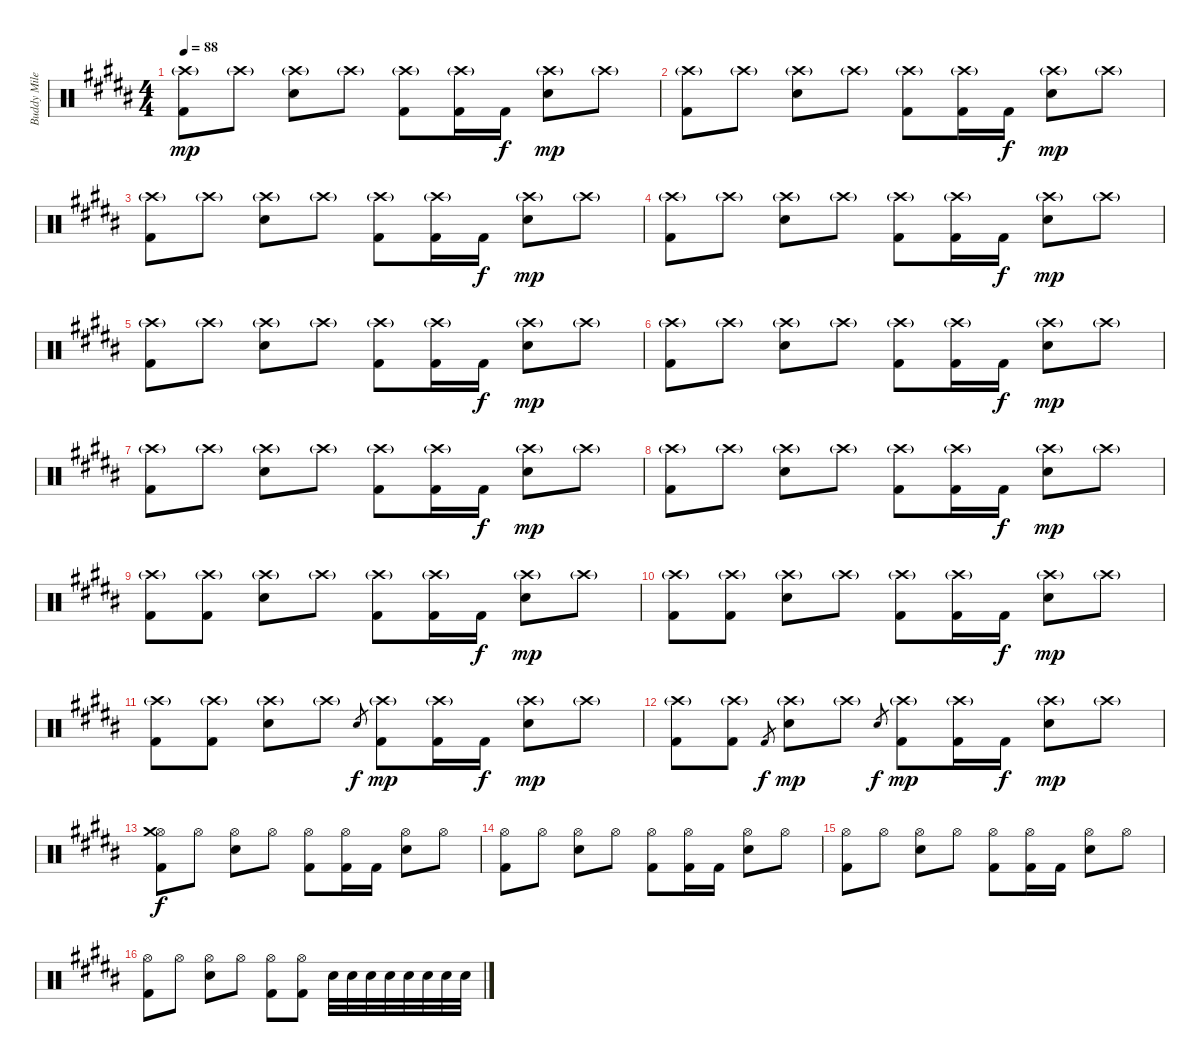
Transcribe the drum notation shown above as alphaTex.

\track ("Buddy Miles" "Buddy Mile") {instrument percussion}
\staff {score}
\articulation defaults
\ts (4 4)
\tempo 88
\clef neutral
\ks b
("Crash high (hit)"{g} "Kick (hit) 2").8{dy mp} "Crash high (hit)"{g}.8 ("Crash high (hit)"{g} "Electric Snare (hit)").8 "Crash high (hit)"{g}.8 ("Crash high (hit)"{g} "Kick (hit) 2").8 ("Crash high (hit)"{g} "Kick (hit) 2").16 "Kick (hit) 2".16{dy f} ("Crash high (hit)"{g} "Electric Snare (hit)").8{dy mp} "Crash high (hit)"{g}.8 |
("Crash high (hit)"{g} "Kick (hit) 2").8 "Crash high (hit)"{g}.8 ("Crash high (hit)"{g} "Electric Snare (hit)").8 "Crash high (hit)"{g}.8 ("Crash high (hit)"{g} "Kick (hit) 2").8 ("Crash high (hit)"{g} "Kick (hit) 2").16 "Kick (hit) 2".16{dy f} ("Crash high (hit)"{g} "Electric Snare (hit)").8{dy mp} "Crash high (hit)"{g}.8 |
("Crash high (hit)"{g} "Kick (hit) 2").8 "Crash high (hit)"{g}.8 ("Crash high (hit)"{g} "Electric Snare (hit)").8 "Crash high (hit)"{g}.8 ("Crash high (hit)"{g} "Kick (hit) 2").8 ("Crash high (hit)"{g} "Kick (hit) 2").16 "Kick (hit) 2".16{dy f} ("Crash high (hit)"{g} "Electric Snare (hit)").8{dy mp} "Crash high (hit)"{g}.8 |
("Crash high (hit)"{g} "Kick (hit) 2").8 "Crash high (hit)"{g}.8 ("Crash high (hit)"{g} "Electric Snare (hit)").8 "Crash high (hit)"{g}.8 ("Crash high (hit)"{g} "Kick (hit) 2").8 ("Crash high (hit)"{g} "Kick (hit) 2").16 "Kick (hit) 2".16{dy f} ("Crash high (hit)"{g} "Electric Snare (hit)").8{dy mp} "Crash high (hit)"{g}.8 |
("Crash high (hit)"{g} "Kick (hit) 2").8 "Crash high (hit)"{g}.8 ("Crash high (hit)"{g} "Electric Snare (hit)").8 "Crash high (hit)"{g}.8 ("Crash high (hit)"{g} "Kick (hit) 2").8 ("Crash high (hit)"{g} "Kick (hit) 2").16 "Kick (hit) 2".16{dy f} ("Crash high (hit)"{g} "Electric Snare (hit)").8{dy mp} "Crash high (hit)"{g}.8 |
("Crash high (hit)"{g} "Kick (hit) 2").8 "Crash high (hit)"{g}.8 ("Crash high (hit)"{g} "Electric Snare (hit)").8 "Crash high (hit)"{g}.8 ("Crash high (hit)"{g} "Kick (hit) 2").8 ("Crash high (hit)"{g} "Kick (hit) 2").16 "Kick (hit) 2".16{dy f} ("Crash high (hit)"{g} "Electric Snare (hit)").8{dy mp} "Crash high (hit)"{g}.8 |
("Crash high (hit)"{g} "Kick (hit) 2").8 "Crash high (hit)"{g}.8 ("Crash high (hit)"{g} "Electric Snare (hit)").8 "Crash high (hit)"{g}.8 ("Crash high (hit)"{g} "Kick (hit) 2").8 ("Crash high (hit)"{g} "Kick (hit) 2").16 "Kick (hit) 2".16{dy f} ("Crash high (hit)"{g} "Electric Snare (hit)").8{dy mp} "Crash high (hit)"{g}.8 |
("Crash high (hit)"{g} "Kick (hit) 2").8 "Crash high (hit)"{g}.8 ("Crash high (hit)"{g} "Electric Snare (hit)").8 "Crash high (hit)"{g}.8 ("Crash high (hit)"{g} "Kick (hit) 2").8 ("Crash high (hit)"{g} "Kick (hit) 2").16 "Kick (hit) 2".16{dy f} ("Crash high (hit)"{g} "Electric Snare (hit)").8{dy mp} "Crash high (hit)"{g}.8 |
("Crash high (hit)"{g} "Kick (hit) 2").8 ("Crash high (hit)"{g} "Kick (hit) 2").8 ("Crash high (hit)"{g} "Electric Snare (hit)").8 "Crash high (hit)"{g}.8 ("Crash high (hit)"{g} "Kick (hit) 2").8 ("Crash high (hit)"{g} "Kick (hit) 2").16 "Kick (hit) 2".16{dy f} ("Crash high (hit)"{g} "Electric Snare (hit)").8{dy mp} "Crash high (hit)"{g}.8 |
("Crash high (hit)"{g} "Kick (hit) 2").8 ("Crash high (hit)"{g} "Kick (hit) 2").8 ("Crash high (hit)"{g} "Electric Snare (hit)").8 "Crash high (hit)"{g}.8 ("Crash high (hit)"{g} "Kick (hit) 2").8 ("Crash high (hit)"{g} "Kick (hit) 2").16 "Kick (hit) 2".16{dy f} ("Crash high (hit)"{g} "Electric Snare (hit)").8{dy mp} "Crash high (hit)"{g}.8 |
("Crash high (hit)"{g} "Kick (hit) 2").8 ("Crash high (hit)"{g} "Kick (hit) 2").8 ("Crash high (hit)"{g} "Electric Snare (hit)").8 "Crash high (hit)"{g}.8 "Electric Snare (hit)".8{gr dy f} ("Crash high (hit)"{g} "Kick (hit) 2").8{dy mp} ("Crash high (hit)"{g} "Kick (hit) 2").16 "Kick (hit) 2".16{dy f} ("Crash high (hit)"{g} "Electric Snare (hit)").8{dy mp} "Crash high (hit)"{g}.8 |
("Crash high (hit)"{g} "Kick (hit) 2").8 ("Crash high (hit)"{g} "Kick (hit) 2").8 "Kick (hit) 2".8{gr dy f} ("Crash high (hit)"{g} "Electric Snare (hit)").8{dy mp} "Crash high (hit)"{g}.8 "Electric Snare (hit)".8{gr dy f} ("Crash high (hit)"{g} "Kick (hit) 2").8{dy mp} ("Crash high (hit)"{g} "Kick (hit) 2").16 "Kick (hit) 2".16{dy f} ("Crash high (hit)"{g} "Electric Snare (hit)").8{dy mp} "Crash high (hit)"{g}.8 |
("Hi-Hat (open)" "Kick (hit) 2" "Crash medium (hit)").8{dy f} "Hi-Hat (open)".8 ("Hi-Hat (open)" "Electric Snare (hit)").8 "Hi-Hat (open)".8 ("Hi-Hat (open)" "Kick (hit) 2").8 ("Hi-Hat (open)" "Kick (hit) 2").16 "Kick (hit) 2".16 ("Hi-Hat (open)" "Electric Snare (hit)").8 "Hi-Hat (open)".8 |
("Hi-Hat (open)" "Kick (hit) 2").8 "Hi-Hat (open)".8 ("Hi-Hat (open)" "Electric Snare (hit)").8 "Hi-Hat (open)".8 ("Hi-Hat (open)" "Kick (hit) 2").8 ("Hi-Hat (open)" "Kick (hit) 2").16 "Kick (hit) 2".16 ("Hi-Hat (open)" "Electric Snare (hit)").8 "Hi-Hat (open)".8 |
("Hi-Hat (open)" "Kick (hit) 2").8 "Hi-Hat (open)".8 ("Hi-Hat (open)" "Electric Snare (hit)").8 "Hi-Hat (open)".8 ("Hi-Hat (open)" "Kick (hit) 2").8 ("Hi-Hat (open)" "Kick (hit) 2").16 "Kick (hit) 2".16 ("Hi-Hat (open)" "Electric Snare (hit)").8 "Hi-Hat (open)".8 |
("Hi-Hat (open)" "Kick (hit) 2").8 "Hi-Hat (open)".8 ("Hi-Hat (open)" "Electric Snare (hit)").8 "Hi-Hat (open)".8 ("Hi-Hat (open)" "Kick (hit) 2").8 ("Hi-Hat (open)" "Kick (hit) 2").8 "Electric Snare (hit)".32 "Electric Snare (hit)".32 "Electric Snare (hit)".32 "Electric Snare (hit)".32 "Electric Snare (hit)".32 "Electric Snare (hit)".32 "Electric Snare (hit)".32 "Electric Snare (hit)".32
